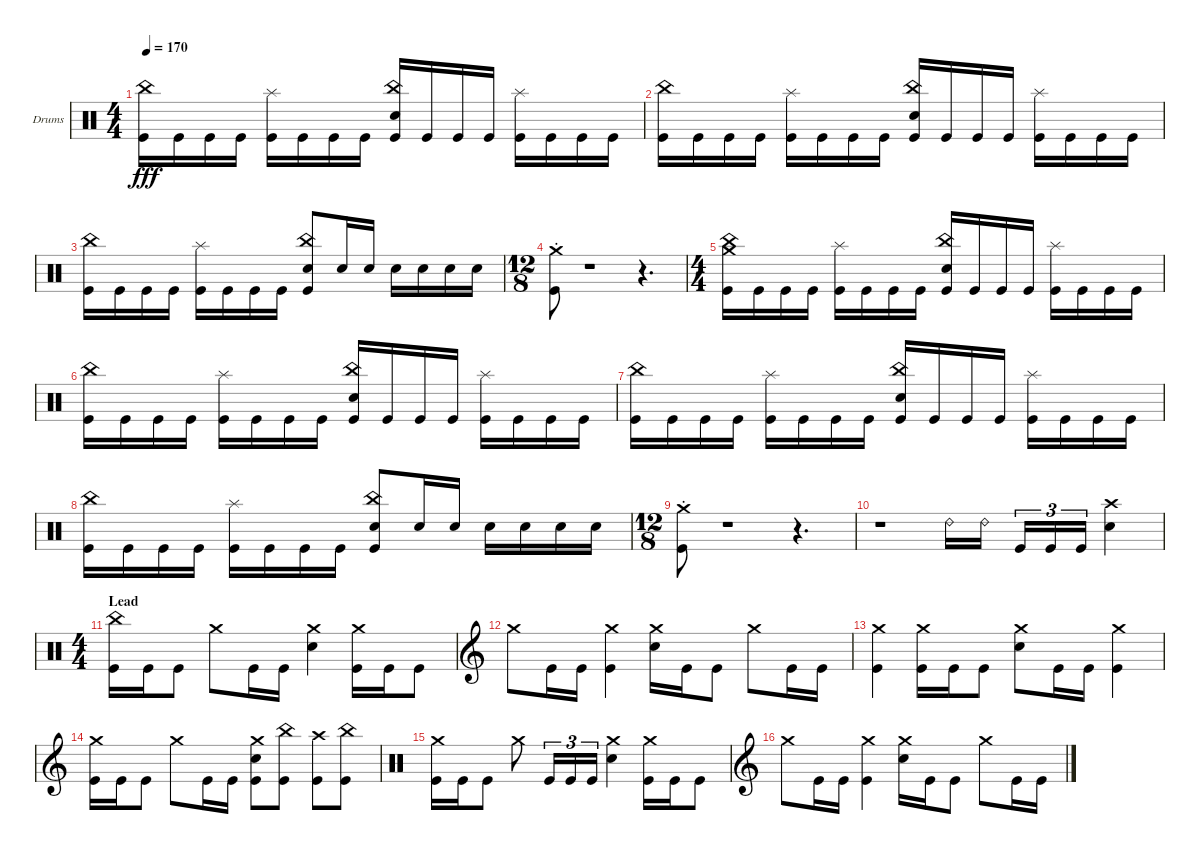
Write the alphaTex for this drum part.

\defaultSystemsLayout 4
\bracketExtendMode groupsimilarinstruments
\firstSystemTrackNameOrientation horizontal
\otherSystemsTrackNameOrientation horizontal
\track ("Chris Adler" "Drums") {instrument percussion}
\staff {score}
\articulation defaults
\ts (4 4)
\tempo 170
\clef neutral
\ks c
("Kick (hit)" "China (hit)").16{dy fff} "Kick (hit)".16 "Kick (hit)".16 "Kick (hit)".16 ("Kick (hit)" "Splash (hit)").16 "Kick (hit)".16 "Kick (hit)".16 "Kick (hit)".16 ("Kick (hit)" "Snare (hit) 2" "China (hit)").16 "Kick (hit)".16 "Kick (hit)".16 "Kick (hit)".16 ("Kick (hit)" "Splash (hit)").16 "Kick (hit)".16 "Kick (hit)".16 "Kick (hit)".16 |
("Kick (hit)" "China (hit)").16 "Kick (hit)".16 "Kick (hit)".16 "Kick (hit)".16 ("Kick (hit)" "Splash (hit)").16 "Kick (hit)".16 "Kick (hit)".16 "Kick (hit)".16 ("Kick (hit)" "Snare (hit) 2" "China (hit)").16 "Kick (hit)".16 "Kick (hit)".16 "Kick (hit)".16 ("Kick (hit)" "Splash (hit)").16 "Kick (hit)".16 "Kick (hit)".16 "Kick (hit)".16 |
("Kick (hit)" "China (hit)").16 "Kick (hit)".16 "Kick (hit)".16 "Kick (hit)".16 ("Kick (hit)" "Splash (hit)").16 "Kick (hit)".16 "Kick (hit)".16 "Kick (hit)".16 ("Kick (hit)" "Snare (hit) 2" "China (hit)").8 "Snare (hit) 2".16 "Snare (hit) 2".16 "Snare (hit) 2".16 "Snare (hit) 2".16 "Snare (hit) 2".16 "Snare (hit) 2".16 |
\ts (12 8)
("Kick (hit)"{st} "Crash medium (hit)"{st}).8 r.1 r.4{d} |
\ts (4 4)
("Kick (hit)" "China (hit)" "Crash medium (hit)").16 "Kick (hit)".16 "Kick (hit)".16 "Kick (hit)".16 ("Kick (hit)" "Splash (hit)").16 "Kick (hit)".16 "Kick (hit)".16 "Kick (hit)".16 ("Kick (hit)" "Snare (hit) 2" "China (hit)").16 "Kick (hit)".16 "Kick (hit)".16 "Kick (hit)".16 ("Kick (hit)" "Splash (hit)").16 "Kick (hit)".16 "Kick (hit)".16 "Kick (hit)".16 |
("Kick (hit)" "China (hit)").16 "Kick (hit)".16 "Kick (hit)".16 "Kick (hit)".16 ("Kick (hit)" "Splash (hit)").16 "Kick (hit)".16 "Kick (hit)".16 "Kick (hit)".16 ("Kick (hit)" "Snare (hit) 2" "China (hit)").16 "Kick (hit)".16 "Kick (hit)".16 "Kick (hit)".16 ("Kick (hit)" "Splash (hit)").16 "Kick (hit)".16 "Kick (hit)".16 "Kick (hit)".16 |
("Kick (hit)" "China (hit)").16 "Kick (hit)".16 "Kick (hit)".16 "Kick (hit)".16 ("Kick (hit)" "Splash (hit)").16 "Kick (hit)".16 "Kick (hit)".16 "Kick (hit)".16 ("Kick (hit)" "Snare (hit) 2" "China (hit)").16 "Kick (hit)".16 "Kick (hit)".16 "Kick (hit)".16 ("Kick (hit)" "Splash (hit)").16 "Kick (hit)".16 "Kick (hit)".16 "Kick (hit)".16 |
("Kick (hit)" "China (hit)").16 "Kick (hit)".16 "Kick (hit)".16 "Kick (hit)".16 ("Kick (hit)" "Splash (hit)").16 "Kick (hit)".16 "Kick (hit)".16 "Kick (hit)".16 ("Kick (hit)" "Snare (hit) 2" "China (hit)").8 "Snare (hit) 2".16 "Snare (hit) 2".16 "Snare (hit) 2".16 "Snare (hit) 2".16 "Snare (hit) 2".16 "Snare (hit) 2".16 |
\ts (12 8)
("Kick (hit)"{st} "Crash medium (hit)"{st}).8 r.1 r.4{d} |
r.1 "Ride (bell) 2".16 "Ride (bell) 2".16 "Kick (hit)".16{tu (3 2)} "Kick (hit)".16{tu (3 2)} "Kick (hit)".16{tu (3 2)} ("Snare (hit) 2" "Crash high (hit)").4 |
\ts (4 4)
\section ("" "Lead")
("Kick (hit)" "China (hit)").16 "Kick (hit)".16 "Kick (hit)".8 "Crash medium (hit)".8 "Kick (hit)".16 "Kick (hit)".16 ("Snare (hit) 2" "Crash medium (hit)").4 ("Kick (hit)" "Crash medium (hit)").16 "Kick (hit)".16 "Kick (hit)".8 |
\clef g2 "Crash medium (hit)".8 "Kick (hit)".16 "Kick (hit)".16
("Kick (hit)" "Crash medium (hit)").4 ("Snare (hit) 2" "Crash medium (hit)").16 "Kick (hit)".16 "Kick (hit)".8 "Crash medium (hit)".8 "Kick (hit)".16 "Kick (hit)".16 |
("Kick (hit)" "Crash medium (hit)").4 ("Kick (hit)" "Crash medium (hit)").16 "Kick (hit)".16 "Kick (hit)".8 ("Snare (hit) 2" "Crash medium (hit)").8 "Kick (hit)".16 "Kick (hit)".16 ("Kick (hit)" "Crash medium (hit)").4 |
("Kick (hit)" "Crash medium (hit)").16 "Kick (hit)".16 "Kick (hit)".8 "Crash medium (hit)".8 "Kick (hit)".16 "Kick (hit)".16 ("Snare (hit) 2" "Kick (hit)" "Crash medium (hit)").8 ("Kick (hit)" "China (hit)").8 ("Kick (hit)" "Crash high (hit)").8 ("Kick (hit)" "China (hit)").8 |
\clef neutral
("Kick (hit)" "Crash medium (hit)").16 "Kick (hit)".16 "Kick (hit)".8 "Crash medium (hit)".8 "Kick (hit)".16{tu (3 2)} "Kick (hit)".16{tu (3 2)} "Kick (hit)".16{tu (3 2)} ("Snare (hit) 2" "Crash medium (hit)").4 ("Kick (hit)" "Crash medium (hit)").16 "Kick (hit)".16 "Kick (hit)".8 |
\clef g2 "Crash medium (hit)".8 "Kick (hit)".16 "Kick (hit)".16
("Kick (hit)" "Crash medium (hit)").4 ("Snare (hit) 2" "Crash medium (hit)").16 "Kick (hit)".16 "Kick (hit)".8 "Crash medium (hit)".8 "Kick (hit)".16 "Kick (hit)".16
